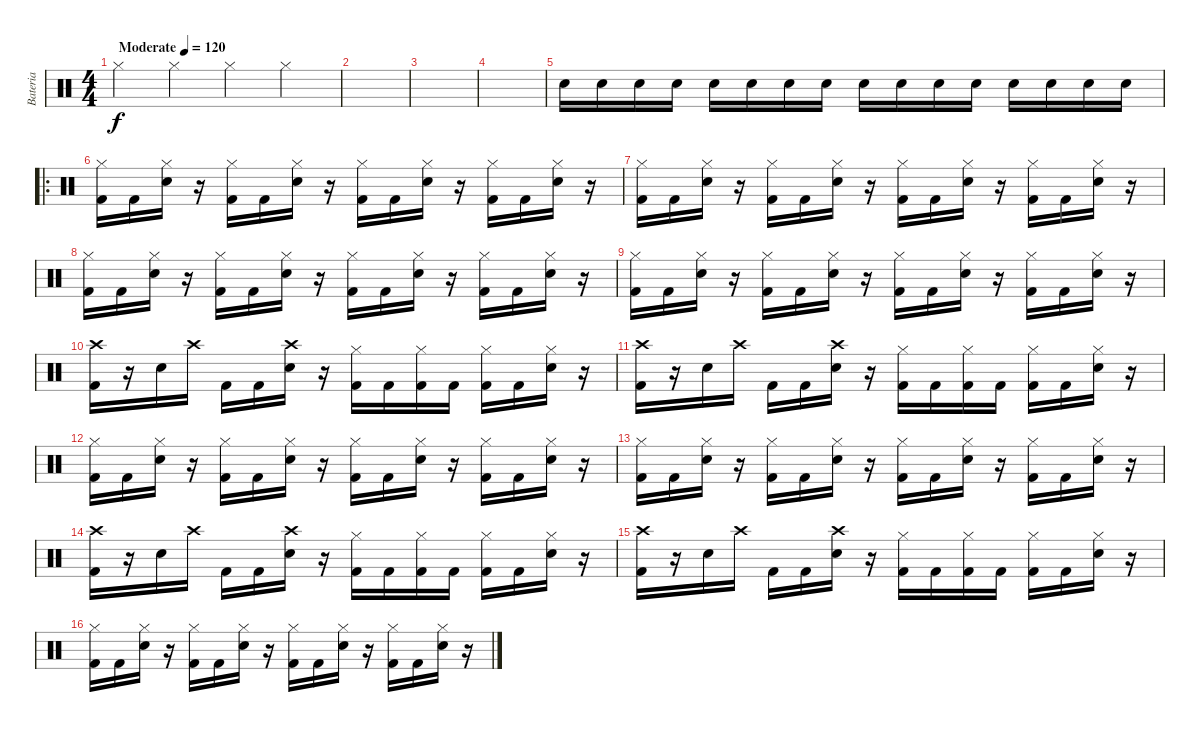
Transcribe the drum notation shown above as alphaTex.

\track ("Bateria" "Bateria") {instrument percussion}
\staff {score}
\articulation defaults
\ts (4 4)
\tempo (120 "Moderate")
\clef neutral
\ks c "Hi-Hat (closed)".4{dy f} "Hi-Hat (closed)".4 "Hi-Hat (closed)".4 "Hi-Hat (closed)".4
|
|
|
|
"Snare (hit) 2".16{volume 2} "Snare (hit) 2".16 "Snare (hit) 2".16 "Snare (hit) 2".16{volume 4} "Snare (hit) 2".16 "Snare (hit) 2".16 "Snare (hit) 2".16 "Snare (hit) 2".16{volume 7} "Snare (hit) 2".16 "Snare (hit) 2".16 "Snare (hit) 2".16 "Snare (hit) 2".16{volume 10} "Snare (hit) 2".16 "Snare (hit) 2".16 "Snare (hit) 2".16 "Snare (hit) 2".16{volume 13} |
\ro
("Kick (hit) 2" "Hi-Hat (closed)").16 "Kick (hit) 2".16 ("Snare (hit) 2" "Hi-Hat (closed)").16 r.16 ("Kick (hit) 2" "Hi-Hat (closed)").16 "Kick (hit) 2".16 ("Snare (hit) 2" "Hi-Hat (closed)").16 r.16 ("Kick (hit) 2" "Hi-Hat (closed)").16 "Kick (hit) 2".16 ("Snare (hit) 2" "Hi-Hat (closed)").16 r.16 ("Kick (hit) 2" "Hi-Hat (closed)").16 "Kick (hit) 2".16 ("Snare (hit) 2" "Hi-Hat (closed)").16 r.16 |
("Kick (hit) 2" "Hi-Hat (closed)").16 "Kick (hit) 2".16 ("Snare (hit) 2" "Hi-Hat (closed)").16 r.16 ("Kick (hit) 2" "Hi-Hat (closed)").16 "Kick (hit) 2".16 ("Snare (hit) 2" "Hi-Hat (closed)").16 r.16 ("Kick (hit) 2" "Hi-Hat (closed)").16 "Kick (hit) 2".16 ("Snare (hit) 2" "Hi-Hat (closed)").16 r.16 ("Kick (hit) 2" "Hi-Hat (closed)").16 "Kick (hit) 2".16 ("Snare (hit) 2" "Hi-Hat (closed)").16 r.16 |
("Kick (hit) 2" "Hi-Hat (closed)").16 "Kick (hit) 2".16 ("Snare (hit) 2" "Hi-Hat (closed)").16 r.16 ("Kick (hit) 2" "Hi-Hat (closed)").16 "Kick (hit) 2".16 ("Snare (hit) 2" "Hi-Hat (closed)").16 r.16 ("Kick (hit) 2" "Hi-Hat (closed)").16 "Kick (hit) 2".16 ("Snare (hit) 2" "Hi-Hat (closed)").16 r.16 ("Kick (hit) 2" "Hi-Hat (closed)").16 "Kick (hit) 2".16 ("Snare (hit) 2" "Hi-Hat (closed)").16 r.16 |
("Kick (hit) 2" "Hi-Hat (closed)").16 "Kick (hit) 2".16 ("Snare (hit) 2" "Hi-Hat (closed)").16 r.16 ("Kick (hit) 2" "Hi-Hat (closed)").16 "Kick (hit) 2".16 ("Snare (hit) 2" "Hi-Hat (closed)").16 r.16 ("Kick (hit) 2" "Hi-Hat (closed)").16 "Kick (hit) 2".16 ("Snare (hit) 2" "Hi-Hat (closed)").16 r.16 ("Kick (hit) 2" "Hi-Hat (closed)").16 "Kick (hit) 2".16 ("Snare (hit) 2" "Hi-Hat (closed)").16 r.16 |
("Kick (hit) 2" "Crash high (hit)").16 r.16 "Snare (hit) 2".16 "Crash high (hit)".16 "Kick (hit) 2".16 "Kick (hit) 2".16 ("Snare (hit) 2" "Crash high (hit)").16 r.16 ("Kick (hit) 2" "Hi-Hat (closed)").16 "Kick (hit) 2".16 ("Kick (hit) 2" "Hi-Hat (closed)").16 "Kick (hit) 2".16 ("Kick (hit) 2" "Hi-Hat (closed)").16 "Kick (hit) 2".16 ("Snare (hit) 2" "Hi-Hat (closed)").16 r.16 |
("Kick (hit) 2" "Crash high (hit)").16 r.16 "Snare (hit) 2".16 "Crash high (hit)".16 "Kick (hit) 2".16 "Kick (hit) 2".16 ("Snare (hit) 2" "Crash high (hit)").16 r.16 ("Kick (hit) 2" "Hi-Hat (closed)").16 "Kick (hit) 2".16 ("Kick (hit) 2" "Hi-Hat (closed)").16 "Kick (hit) 2".16 ("Kick (hit) 2" "Hi-Hat (closed)").16 "Kick (hit) 2".16 ("Snare (hit) 2" "Hi-Hat (closed)").16 r.16 |
("Kick (hit) 2" "Hi-Hat (closed)").16 "Kick (hit) 2".16 ("Snare (hit) 2" "Hi-Hat (closed)").16 r.16 ("Kick (hit) 2" "Hi-Hat (closed)").16 "Kick (hit) 2".16 ("Snare (hit) 2" "Hi-Hat (closed)").16 r.16 ("Kick (hit) 2" "Hi-Hat (closed)").16 "Kick (hit) 2".16 ("Snare (hit) 2" "Hi-Hat (closed)").16 r.16 ("Kick (hit) 2" "Hi-Hat (closed)").16 "Kick (hit) 2".16 ("Snare (hit) 2" "Hi-Hat (closed)").16 r.16 |
("Kick (hit) 2" "Hi-Hat (closed)").16 "Kick (hit) 2".16 ("Snare (hit) 2" "Hi-Hat (closed)").16 r.16 ("Kick (hit) 2" "Hi-Hat (closed)").16 "Kick (hit) 2".16 ("Snare (hit) 2" "Hi-Hat (closed)").16 r.16 ("Kick (hit) 2" "Hi-Hat (closed)").16 "Kick (hit) 2".16 ("Snare (hit) 2" "Hi-Hat (closed)").16 r.16 ("Kick (hit) 2" "Hi-Hat (closed)").16 "Kick (hit) 2".16 ("Snare (hit) 2" "Hi-Hat (closed)").16 r.16 |
("Kick (hit) 2" "Crash high (hit)").16 r.16 "Snare (hit) 2".16 "Crash high (hit)".16 "Kick (hit) 2".16 "Kick (hit) 2".16 ("Snare (hit) 2" "Crash high (hit)").16 r.16 ("Kick (hit) 2" "Hi-Hat (closed)").16 "Kick (hit) 2".16 ("Kick (hit) 2" "Hi-Hat (closed)").16 "Kick (hit) 2".16 ("Kick (hit) 2" "Hi-Hat (closed)").16 "Kick (hit) 2".16 ("Snare (hit) 2" "Hi-Hat (closed)").16 r.16 |
("Kick (hit) 2" "Crash high (hit)").16 r.16 "Snare (hit) 2".16 "Crash high (hit)".16 "Kick (hit) 2".16 "Kick (hit) 2".16 ("Snare (hit) 2" "Crash high (hit)").16 r.16 ("Kick (hit) 2" "Hi-Hat (closed)").16 "Kick (hit) 2".16 ("Kick (hit) 2" "Hi-Hat (closed)").16 "Kick (hit) 2".16 ("Kick (hit) 2" "Hi-Hat (closed)").16 "Kick (hit) 2".16 ("Snare (hit) 2" "Hi-Hat (closed)").16 r.16 |
("Kick (hit) 2" "Hi-Hat (closed)").16 "Kick (hit) 2".16 ("Snare (hit) 2" "Hi-Hat (closed)").16 r.16 ("Kick (hit) 2" "Hi-Hat (closed)").16 "Kick (hit) 2".16 ("Snare (hit) 2" "Hi-Hat (closed)").16 r.16 ("Kick (hit) 2" "Hi-Hat (closed)").16 "Kick (hit) 2".16 ("Snare (hit) 2" "Hi-Hat (closed)").16 r.16 ("Kick (hit) 2" "Hi-Hat (closed)").16 "Kick (hit) 2".16 ("Snare (hit) 2" "Hi-Hat (closed)").16 r.16
